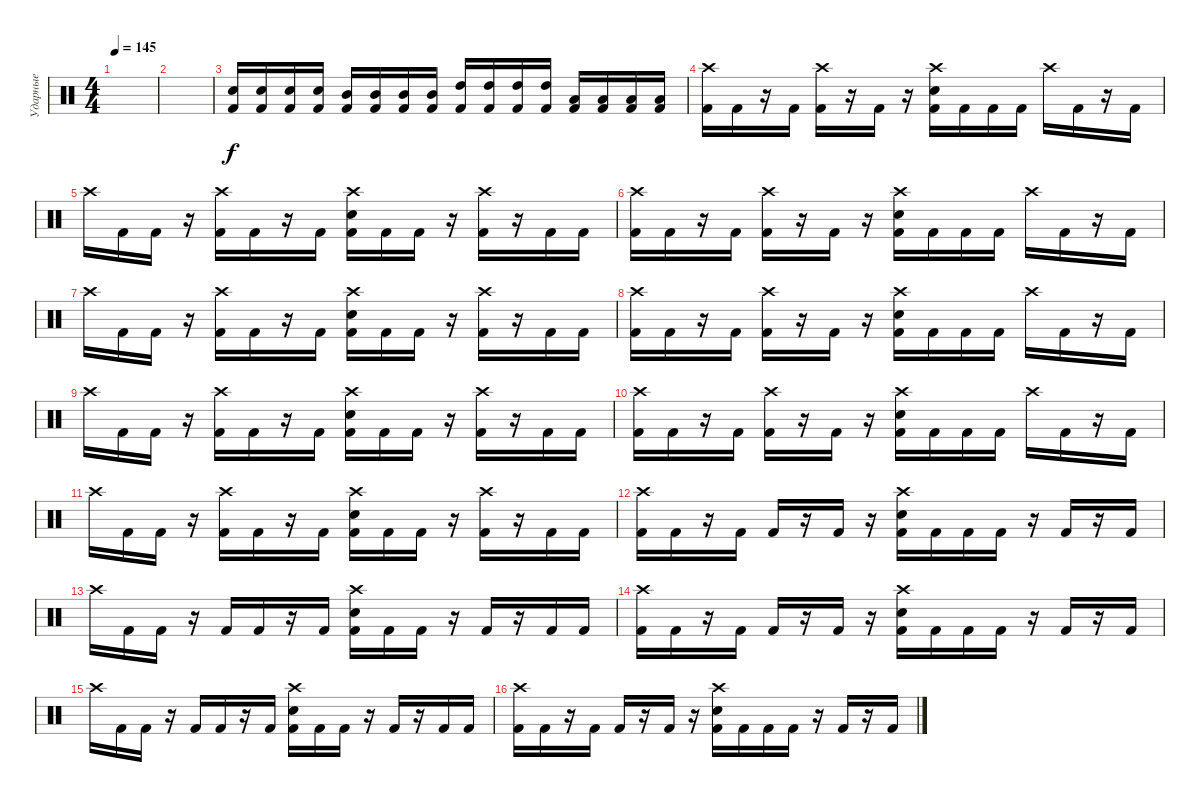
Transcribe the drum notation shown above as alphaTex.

\track ("Ударные" "Ударные") {instrument percussion}
\staff {score}
\articulation defaults
\ts (4 4)
\tempo 145
\clef neutral
\ks c
|
|
("Electric Snare (hit)" "Kick (hit) 2").16 ("Electric Snare (hit)" "Kick (hit) 2").16 ("Electric Snare (hit)" "Kick (hit) 2").16 ("Electric Snare (hit)" "Kick (hit) 2").16 ("Mid Tom (hit)" "Kick (hit) 2").16 ("Mid Tom (hit)" "Kick (hit) 2").16 ("Mid Tom (hit)" "Kick (hit) 2").16 ("Mid Tom (hit)" "Kick (hit) 2").16 ("High Tom (hit)" "Kick (hit) 2").16 ("High Tom (hit)" "Kick (hit) 2").16 ("High Tom (hit)" "Kick (hit) 2").16 ("High Tom (hit)" "Kick (hit) 2").16 ("Low Tom (hit)" "Kick (hit) 2").16 ("Low Tom (hit)" "Kick (hit) 2").16 ("Low Tom (hit)" "Kick (hit) 2").16 ("Low Tom (hit)" "Kick (hit) 2").16 |
("Crash high (hit)" "Kick (hit) 2").16 "Kick (hit) 2".16 r.16 "Kick (hit) 2".16 ("Crash high (hit)" "Kick (hit) 2").16 r.16 "Kick (hit) 2".16 r.16 ("Crash high (hit)" "Electric Snare (hit)" "Kick (hit) 2").16 "Kick (hit) 2".16 "Kick (hit) 2".16 "Kick (hit) 2".16 "Crash high (hit)".16 "Kick (hit) 2".16 r.16 "Kick (hit) 2".16 |
"Crash high (hit)".16 "Kick (hit) 2".16 "Kick (hit) 2".16 r.16 ("Crash high (hit)" "Kick (hit) 2").16 "Kick (hit) 2".16 r.16 "Kick (hit) 2".16 ("Crash high (hit)" "Electric Snare (hit)" "Kick (hit) 2").16 "Kick (hit) 2".16 "Kick (hit) 2".16 r.16 ("Crash high (hit)" "Kick (hit) 2").16 r.16 "Kick (hit) 2".16 "Kick (hit) 2".16 |
("Crash high (hit)" "Kick (hit) 2").16 "Kick (hit) 2".16 r.16 "Kick (hit) 2".16 ("Crash high (hit)" "Kick (hit) 2").16 r.16 "Kick (hit) 2".16 r.16 ("Crash high (hit)" "Electric Snare (hit)" "Kick (hit) 2").16 "Kick (hit) 2".16 "Kick (hit) 2".16 "Kick (hit) 2".16 "Crash high (hit)".16 "Kick (hit) 2".16 r.16 "Kick (hit) 2".16 |
"Crash high (hit)".16 "Kick (hit) 2".16 "Kick (hit) 2".16 r.16 ("Crash high (hit)" "Kick (hit) 2").16 "Kick (hit) 2".16 r.16 "Kick (hit) 2".16 ("Crash high (hit)" "Electric Snare (hit)" "Kick (hit) 2").16 "Kick (hit) 2".16 "Kick (hit) 2".16 r.16 ("Crash high (hit)" "Kick (hit) 2").16 r.16 "Kick (hit) 2".16 "Kick (hit) 2".16 |
("Crash high (hit)" "Kick (hit) 2").16 "Kick (hit) 2".16 r.16 "Kick (hit) 2".16 ("Crash high (hit)" "Kick (hit) 2").16 r.16 "Kick (hit) 2".16 r.16 ("Crash high (hit)" "Electric Snare (hit)" "Kick (hit) 2").16 "Kick (hit) 2".16 "Kick (hit) 2".16 "Kick (hit) 2".16 "Crash high (hit)".16 "Kick (hit) 2".16 r.16 "Kick (hit) 2".16 |
"Crash high (hit)".16 "Kick (hit) 2".16 "Kick (hit) 2".16 r.16 ("Crash high (hit)" "Kick (hit) 2").16 "Kick (hit) 2".16 r.16 "Kick (hit) 2".16 ("Crash high (hit)" "Electric Snare (hit)" "Kick (hit) 2").16 "Kick (hit) 2".16 "Kick (hit) 2".16 r.16 ("Crash high (hit)" "Kick (hit) 2").16 r.16 "Kick (hit) 2".16 "Kick (hit) 2".16 |
("Crash high (hit)" "Kick (hit) 2").16 "Kick (hit) 2".16 r.16 "Kick (hit) 2".16 ("Crash high (hit)" "Kick (hit) 2").16 r.16 "Kick (hit) 2".16 r.16 ("Crash high (hit)" "Electric Snare (hit)" "Kick (hit) 2").16 "Kick (hit) 2".16 "Kick (hit) 2".16 "Kick (hit) 2".16 "Crash high (hit)".16 "Kick (hit) 2".16 r.16 "Kick (hit) 2".16 |
"Crash high (hit)".16 "Kick (hit) 2".16 "Kick (hit) 2".16 r.16 ("Crash high (hit)" "Kick (hit) 2").16 "Kick (hit) 2".16 r.16 "Kick (hit) 2".16 ("Crash high (hit)" "Electric Snare (hit)" "Kick (hit) 2").16 "Kick (hit) 2".16 "Kick (hit) 2".16 r.16 ("Crash high (hit)" "Kick (hit) 2").16 r.16 "Kick (hit) 2".16 "Kick (hit) 2".16 |
("Crash high (hit)" "Kick (hit) 2").16 "Kick (hit) 2".16 r.16 "Kick (hit) 2".16 "Kick (hit) 2".16 r.16 "Kick (hit) 2".16 r.16 ("Crash high (hit)" "Electric Snare (hit)" "Kick (hit) 2").16 "Kick (hit) 2".16 "Kick (hit) 2".16 "Kick (hit) 2".16 r.16 "Kick (hit) 2".16 r.16 "Kick (hit) 2".16 |
"Crash high (hit)".16 "Kick (hit) 2".16 "Kick (hit) 2".16 r.16 "Kick (hit) 2".16 "Kick (hit) 2".16 r.16 "Kick (hit) 2".16 ("Crash high (hit)" "Electric Snare (hit)" "Kick (hit) 2").16 "Kick (hit) 2".16 "Kick (hit) 2".16 r.16 "Kick (hit) 2".16 r.16 "Kick (hit) 2".16 "Kick (hit) 2".16 |
("Crash high (hit)" "Kick (hit) 2").16 "Kick (hit) 2".16 r.16 "Kick (hit) 2".16 "Kick (hit) 2".16 r.16 "Kick (hit) 2".16 r.16 ("Crash high (hit)" "Electric Snare (hit)" "Kick (hit) 2").16 "Kick (hit) 2".16 "Kick (hit) 2".16 "Kick (hit) 2".16 r.16 "Kick (hit) 2".16 r.16 "Kick (hit) 2".16 |
"Crash high (hit)".16 "Kick (hit) 2".16 "Kick (hit) 2".16 r.16 "Kick (hit) 2".16 "Kick (hit) 2".16 r.16 "Kick (hit) 2".16 ("Crash high (hit)" "Electric Snare (hit)" "Kick (hit) 2").16 "Kick (hit) 2".16 "Kick (hit) 2".16 r.16 "Kick (hit) 2".16 r.16 "Kick (hit) 2".16 "Kick (hit) 2".16 |
("Crash high (hit)" "Kick (hit) 2").16 "Kick (hit) 2".16 r.16 "Kick (hit) 2".16 "Kick (hit) 2".16 r.16 "Kick (hit) 2".16 r.16 ("Crash high (hit)" "Electric Snare (hit)" "Kick (hit) 2").16 "Kick (hit) 2".16 "Kick (hit) 2".16 "Kick (hit) 2".16 r.16 "Kick (hit) 2".16 r.16 "Kick (hit) 2".16
